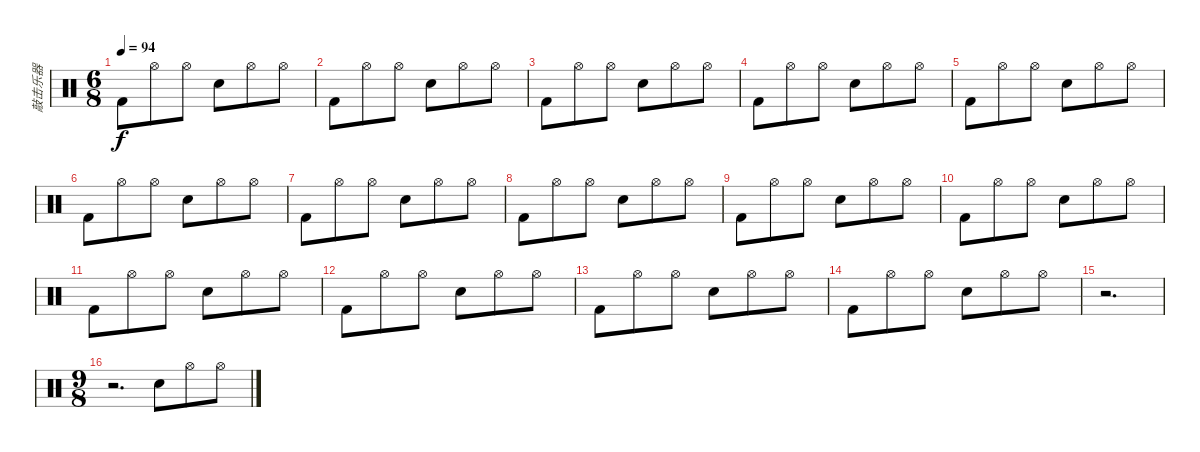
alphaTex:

\track ("敲击乐器" "敲击乐器") {instrument percussion}
\staff {score}
\articulation defaults
\ts (6 8)
\tempo 94
\clef neutral
\ks c "Kick (hit) 2".8{dy f} "Hi-Hat (open)".8 "Hi-Hat (open)".8 "Electric Snare (hit)".8 "Hi-Hat (open)".8 "Hi-Hat (open)".8
|
"Kick (hit) 2".8 "Hi-Hat (open)".8 "Hi-Hat (open)".8 "Electric Snare (hit)".8 "Hi-Hat (open)".8 "Hi-Hat (open)".8 |
"Kick (hit) 2".8 "Hi-Hat (open)".8 "Hi-Hat (open)".8 "Electric Snare (hit)".8 "Hi-Hat (open)".8 "Hi-Hat (open)".8 |
"Kick (hit) 2".8 "Hi-Hat (open)".8 "Hi-Hat (open)".8 "Electric Snare (hit)".8 "Hi-Hat (open)".8 "Hi-Hat (open)".8 |
"Kick (hit) 2".8 "Hi-Hat (open)".8 "Hi-Hat (open)".8 "Electric Snare (hit)".8 "Hi-Hat (open)".8 "Hi-Hat (open)".8 |
"Kick (hit) 2".8 "Hi-Hat (open)".8 "Hi-Hat (open)".8 "Electric Snare (hit)".8 "Hi-Hat (open)".8 "Hi-Hat (open)".8 |
"Kick (hit) 2".8 "Hi-Hat (open)".8 "Hi-Hat (open)".8 "Electric Snare (hit)".8 "Hi-Hat (open)".8 "Hi-Hat (open)".8 |
"Kick (hit) 2".8 "Hi-Hat (open)".8 "Hi-Hat (open)".8 "Electric Snare (hit)".8 "Hi-Hat (open)".8 "Hi-Hat (open)".8 |
"Kick (hit) 2".8 "Hi-Hat (open)".8 "Hi-Hat (open)".8 "Electric Snare (hit)".8 "Hi-Hat (open)".8 "Hi-Hat (open)".8 |
"Kick (hit) 2".8 "Hi-Hat (open)".8 "Hi-Hat (open)".8 "Electric Snare (hit)".8 "Hi-Hat (open)".8 "Hi-Hat (open)".8 |
"Kick (hit) 2".8 "Hi-Hat (open)".8 "Hi-Hat (open)".8 "Electric Snare (hit)".8 "Hi-Hat (open)".8 "Hi-Hat (open)".8 |
"Kick (hit) 2".8 "Hi-Hat (open)".8 "Hi-Hat (open)".8 "Electric Snare (hit)".8 "Hi-Hat (open)".8 "Hi-Hat (open)".8 |
"Kick (hit) 2".8 "Hi-Hat (open)".8 "Hi-Hat (open)".8 "Electric Snare (hit)".8 "Hi-Hat (open)".8 "Hi-Hat (open)".8 |
"Kick (hit) 2".8 "Hi-Hat (open)".8 "Hi-Hat (open)".8 "Electric Snare (hit)".8 "Hi-Hat (open)".8 "Hi-Hat (open)".8 |
r.2{d} |
\ts (9 8)
r.2{d} "Electric Snare (hit)".8 "Hi-Hat (open)".8 "Hi-Hat (open)".8
